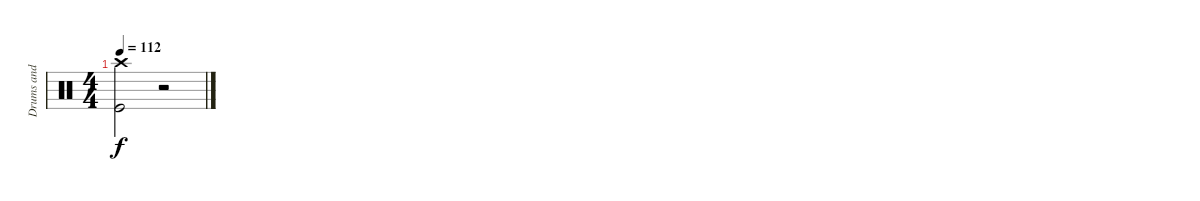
\track ("Drums and Percussions" "Drums and ") {instrument percussion}
\staff {score}
\articulation defaults
\ts (4 4)
\tempo 112
\clef neutral
\ks c
("Crash high (hit)" "Kick (hit)").2{dy f} r.2
